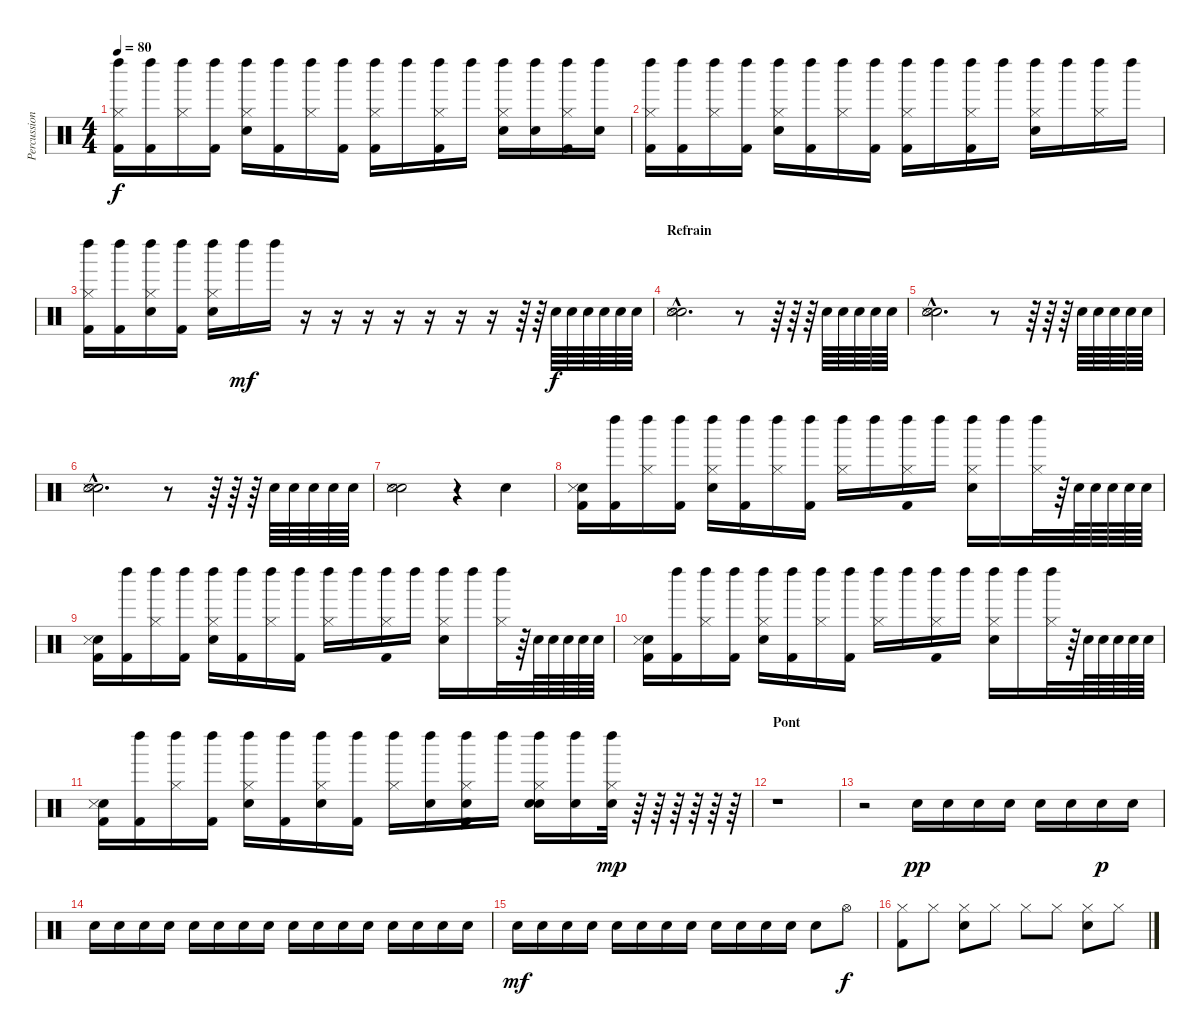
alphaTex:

\track ("Percussions" "Percussion") {instrument percussion}
\staff {score}
\articulation defaults
\ts (4 4)
\tempo 80
\clef neutral
\ks c
("Hi-Hat (closed)" "Kick (hit) 2" "Left Maraca (hit)").16{dy f} ("Kick (hit) 2" "Left Maraca (hit)").16 ("Hi-Hat (closed)" "Left Maraca (hit)").16 ("Kick (hit) 2" "Left Maraca (hit)").16 ("Hi-Hat (closed)" "Electric Snare (hit)" "Left Maraca (hit)").16 ("Kick (hit) 2" "Left Maraca (hit)").16 ("Hi-Hat (closed)" "Left Maraca (hit)").16 ("Kick (hit) 2" "Left Maraca (hit)").16 ("Hi-Hat (closed)" "Kick (hit) 2" "Left Maraca (hit)").16 "Left Maraca (hit)".16 ("Hi-Hat (closed)" "Kick (hit) 2" "Left Maraca (hit)").16 "Left Maraca (hit)".16 ("Hi-Hat (closed)" "Electric Snare (hit)" "Left Maraca (hit)").16 ("Electric Snare (hit)" "Left Maraca (hit)").16 ("Hi-Hat (closed)" "Kick (hit) 2" "Left Maraca (hit)").16 ("Electric Snare (hit)" "Left Maraca (hit)").16 |
("Hi-Hat (closed)" "Kick (hit) 2" "Left Maraca (hit)").16 ("Kick (hit) 2" "Left Maraca (hit)").16 ("Hi-Hat (closed)" "Left Maraca (hit)").16 ("Kick (hit) 2" "Left Maraca (hit)").16 ("Hi-Hat (closed)" "Electric Snare (hit)" "Left Maraca (hit)").16 ("Kick (hit) 2" "Left Maraca (hit)").16 ("Hi-Hat (closed)" "Left Maraca (hit)").16 ("Kick (hit) 2" "Left Maraca (hit)").16 ("Hi-Hat (closed)" "Kick (hit) 2" "Left Maraca (hit)").16 "Left Maraca (hit)".16 ("Hi-Hat (closed)" "Kick (hit) 2" "Left Maraca (hit)").16 "Left Maraca (hit)".16 ("Hi-Hat (closed)" "Electric Snare (hit)" "Left Maraca (hit)").16 "Left Maraca (hit)".16 ("Hi-Hat (closed)" "Left Maraca (hit)").16 "Left Maraca (hit)".16 |
("Hi-Hat (closed)" "Kick (hit) 2" "Left Maraca (hit)").16 ("Kick (hit) 2" "Left Maraca (hit)").16 ("Hi-Hat (closed)" "Electric Snare (hit)" "Left Maraca (hit)").16 ("Kick (hit) 2" "Left Maraca (hit)").16 ("Hi-Hat (closed)" "Electric Snare (hit)" "Left Maraca (hit)").16 "Left Maraca (hit)".16{dy mf} "Left Maraca (hit)".16 r.16 r.16 r.16 r.16 r.16 r.16 r.16 r.64 r.64 "Electric Snare (hit)".64{dy f} "Electric Snare (hit)".64 "Electric Snare (hit)".64 "Electric Snare (hit)".64 "Electric Snare (hit)".64 "Electric Snare (hit)".64 |
\section ("" "Refrain")
("Electric Snare (hit)"{hac} "Snare (side stick) 3"{hac} "Snare (hit) 2"{hac}).2{d} r.8 r.64 r.64 r.64 "Electric Snare (hit)".64 "Electric Snare (hit)".64 "Electric Snare (hit)".64 "Electric Snare (hit)".64 "Electric Snare (hit)".64 |
("Electric Snare (hit)"{hac} "Snare (side stick) 3"{hac} "Snare (hit) 2"{hac}).2{d} r.8 r.64 r.64 r.64 "Electric Snare (hit)".64 "Electric Snare (hit)".64 "Electric Snare (hit)".64 "Electric Snare (hit)".64 "Electric Snare (hit)".64 |
("Electric Snare (hit)"{hac} "Snare (side stick) 3"{hac} "Snare (hit) 2"{hac}).2{d} r.8 r.64 r.64 r.64 "Electric Snare (hit)".64 "Electric Snare (hit)".64 "Electric Snare (hit)".64 "Electric Snare (hit)".64 "Electric Snare (hit)".64 |
("Electric Snare (hit)" "Snare (side stick) 3" "Snare (hit) 2").2 r.4 "Electric Snare (hit)".4 |
("Electric Snare (hit)" "Snare (side stick) 3" "Kick (hit) 2").16 ("Kick (hit) 2" "Left Maraca (hit)").16 ("Hi-Hat (closed)" "Left Maraca (hit)").16 ("Kick (hit) 2" "Left Maraca (hit)").16 ("Hi-Hat (closed)" "Electric Snare (hit)" "Left Maraca (hit)").16 ("Kick (hit) 2" "Left Maraca (hit)").16 ("Hi-Hat (closed)" "Left Maraca (hit)").16 ("Kick (hit) 2" "Left Maraca (hit)").16 ("Hi-Hat (closed)" "Left Maraca (hit)").16 "Left Maraca (hit)".16 ("Hi-Hat (closed)" "Kick (hit) 2" "Left Maraca (hit)").16 "Left Maraca (hit)".16 ("Hi-Hat (closed)" "Electric Snare (hit)" "Left Maraca (hit)").16 "Left Maraca (hit)".16 ("Hi-Hat (closed)" "Left Maraca (hit)").32 r.64 "Electric Snare (hit)".64 "Electric Snare (hit)".64 "Electric Snare (hit)".64 "Electric Snare (hit)".64 "Electric Snare (hit)".64 |
("Electric Snare (hit)" "Snare (side stick) 3" "Kick (hit) 2").16 ("Kick (hit) 2" "Left Maraca (hit)").16 ("Hi-Hat (closed)" "Left Maraca (hit)").16 ("Kick (hit) 2" "Left Maraca (hit)").16 ("Hi-Hat (closed)" "Electric Snare (hit)" "Left Maraca (hit)").16 ("Kick (hit) 2" "Left Maraca (hit)").16 ("Hi-Hat (closed)" "Left Maraca (hit)").16 ("Kick (hit) 2" "Left Maraca (hit)").16 ("Hi-Hat (closed)" "Left Maraca (hit)").16 "Left Maraca (hit)".16 ("Hi-Hat (closed)" "Kick (hit) 2" "Left Maraca (hit)").16 "Left Maraca (hit)".16 ("Hi-Hat (closed)" "Electric Snare (hit)" "Left Maraca (hit)").16 "Left Maraca (hit)".16 ("Hi-Hat (closed)" "Left Maraca (hit)").32 r.64 "Electric Snare (hit)".64 "Electric Snare (hit)".64 "Electric Snare (hit)".64 "Electric Snare (hit)".64 "Electric Snare (hit)".64 |
("Electric Snare (hit)" "Snare (side stick) 3" "Kick (hit) 2").16 ("Kick (hit) 2" "Left Maraca (hit)").16 ("Hi-Hat (closed)" "Left Maraca (hit)").16 ("Kick (hit) 2" "Left Maraca (hit)").16 ("Hi-Hat (closed)" "Electric Snare (hit)" "Left Maraca (hit)").16 ("Kick (hit) 2" "Left Maraca (hit)").16 ("Hi-Hat (closed)" "Left Maraca (hit)").16 ("Kick (hit) 2" "Left Maraca (hit)").16 ("Hi-Hat (closed)" "Left Maraca (hit)").16 "Left Maraca (hit)".16 ("Hi-Hat (closed)" "Kick (hit) 2" "Left Maraca (hit)").16 "Left Maraca (hit)".16 ("Hi-Hat (closed)" "Electric Snare (hit)" "Left Maraca (hit)").16 "Left Maraca (hit)".16 ("Hi-Hat (closed)" "Left Maraca (hit)").32 r.64 "Electric Snare (hit)".64 "Electric Snare (hit)".64 "Electric Snare (hit)".64 "Electric Snare (hit)".64 "Electric Snare (hit)".64 |
("Electric Snare (hit)" "Snare (side stick) 3" "Kick (hit) 2").16 ("Kick (hit) 2" "Left Maraca (hit)").16 ("Hi-Hat (closed)" "Left Maraca (hit)").16 ("Kick (hit) 2" "Left Maraca (hit)").16 ("Hi-Hat (closed)" "Electric Snare (hit)" "Left Maraca (hit)").16 ("Kick (hit) 2" "Left Maraca (hit)").16 ("Hi-Hat (closed)" "Electric Snare (hit)" "Left Maraca (hit)").16 ("Kick (hit) 2" "Left Maraca (hit)").16 ("Hi-Hat (closed)" "Left Maraca (hit)").16 ("Electric Snare (hit)" "Left Maraca (hit)").16 ("Hi-Hat (closed)" "Electric Snare (hit)" "Kick (hit) 2" "Left Maraca (hit)").16 "Left Maraca (hit)".16 ("Hi-Hat (closed)" "Electric Snare (hit)" "Electric Snare (hit)" "Left Maraca (hit)").16 ("Electric Snare (hit)" "Left Maraca (hit)").16 ("Hi-Hat (closed)" "Snare (hit) 2" "Left Maraca (hit)").32{dy mp} r.64 r.64 r.64 r.64 r.64 r.64 |
\section ("" "Pont")
r.1 |
r.2 "Electric Snare (hit)".16{dy pp balance 16} "Electric Snare (hit)".16 "Electric Snare (hit)".16 "Electric Snare (hit)".16 "Electric Snare (hit)".16 "Electric Snare (hit)".16 "Electric Snare (hit)".16{dy p} "Electric Snare (hit)".16 |
"Electric Snare (hit)".16{balance 0} "Electric Snare (hit)".16 "Electric Snare (hit)".16 "Electric Snare (hit)".16 "Electric Snare (hit)".16 "Electric Snare (hit)".16 "Electric Snare (hit)".16 "Electric Snare (hit)".16 "Electric Snare (hit)".16 "Electric Snare (hit)".16 "Electric Snare (hit)".16{balance 16} "Electric Snare (hit)".16 "Electric Snare (hit)".16 "Electric Snare (hit)".16 "Electric Snare (hit)".16 "Electric Snare (hit)".16 |
"Electric Snare (hit)".16{dy mf} "Electric Snare (hit)".16 "Electric Snare (hit)".16 "Electric Snare (hit)".16 "Electric Snare (hit)".16{balance 0} "Electric Snare (hit)".16 "Electric Snare (hit)".16{balance 16} "Electric Snare (hit)".16 "Electric Snare (hit)".16{balance 0} "Electric Snare (hit)".16 "Electric Snare (hit)".16{balance 16} "Electric Snare (hit)".16 "Electric Snare (hit)".8 "Hi-Hat (open)".8{dy f} |
("Hi-Hat (closed)" "Kick (hit) 2").8 "Hi-Hat (closed)".8 ("Hi-Hat (closed)" "Electric Snare (hit)").8 "Hi-Hat (closed)".8 "Hi-Hat (closed)".8 "Hi-Hat (closed)".8 ("Hi-Hat (closed)" "Electric Snare (hit)").8 "Hi-Hat (closed)".8
